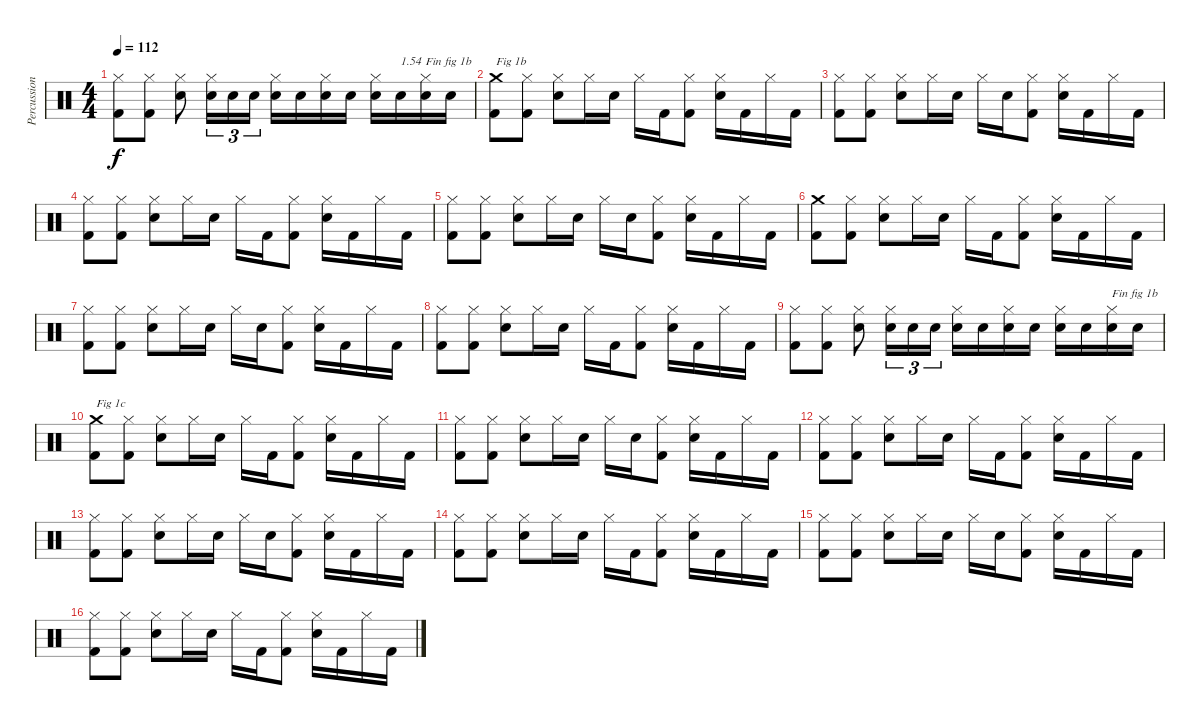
\track ("Percussions" "Percussion") {instrument percussion}
\staff {score}
\articulation defaults
\ts (4 4)
\tempo 112
\clef neutral
\ks c
("Kick (hit) 2" "Hi-Hat (closed)").8{dy f} ("Kick (hit) 2" "Hi-Hat (closed)").8 ("Snare (hit) 2" "Hi-Hat (closed)").8 ("Snare (hit) 2" "Hi-Hat (closed)").16{tu (3 2)} "Snare (hit) 2".16{tu (3 2)} "Snare (hit) 2".16{tu (3 2)} ("Snare (hit) 2" "Hi-Hat (closed)").16 "Snare (hit) 2".16 ("Snare (hit) 2" "Hi-Hat (closed)").16 "Snare (hit) 2".16 ("Snare (hit) 2" "Hi-Hat (closed)").16 "Snare (hit) 2".16{txt "1.54"} ("Snare (hit) 2" "Hi-Hat (closed)").16{txt "Fin fig 1b"} "Snare (hit) 2".16 |
("Kick (hit) 2" "Crash medium (hit)").8{txt "Fig 1b"} ("Kick (hit) 2" "Hi-Hat (closed)").8 ("Snare (hit) 2" "Hi-Hat (closed)").8 "Hi-Hat (closed)".16 "Snare (hit) 2".16 "Hi-Hat (closed)".16 "Kick (hit) 2".16 ("Kick (hit) 2" "Hi-Hat (closed)").8 ("Snare (hit) 2" "Hi-Hat (closed)").16 "Kick (hit) 2".16 "Hi-Hat (closed)".16 "Kick (hit) 2".16 |
("Kick (hit) 2" "Hi-Hat (closed)").8 ("Kick (hit) 2" "Hi-Hat (closed)").8 ("Snare (hit) 2" "Hi-Hat (closed)").8 "Hi-Hat (closed)".16 "Snare (hit) 2".16 "Hi-Hat (closed)".16 "Snare (hit) 2".16 ("Kick (hit) 2" "Hi-Hat (closed)").8 ("Snare (hit) 2" "Hi-Hat (closed)").16 "Kick (hit) 2".16 "Hi-Hat (closed)".16 "Kick (hit) 2".16 |
("Kick (hit) 2" "Hi-Hat (closed)").8 ("Kick (hit) 2" "Hi-Hat (closed)").8 ("Snare (hit) 2" "Hi-Hat (closed)").8 "Hi-Hat (closed)".16 "Snare (hit) 2".16 "Hi-Hat (closed)".16 "Kick (hit) 2".16 ("Kick (hit) 2" "Hi-Hat (closed)").8 ("Snare (hit) 2" "Hi-Hat (closed)").16 "Kick (hit) 2".16 "Hi-Hat (closed)".16 "Kick (hit) 2".16 |
("Kick (hit) 2" "Hi-Hat (closed)").8 ("Kick (hit) 2" "Hi-Hat (closed)").8 ("Snare (hit) 2" "Hi-Hat (closed)").8 "Hi-Hat (closed)".16 "Snare (hit) 2".16 "Hi-Hat (closed)".16 "Snare (hit) 2".16 ("Kick (hit) 2" "Hi-Hat (closed)").8 ("Snare (hit) 2" "Hi-Hat (closed)").16 "Kick (hit) 2".16 "Hi-Hat (closed)".16 "Kick (hit) 2".16 |
("Kick (hit) 2" "Crash medium (hit)").8 ("Kick (hit) 2" "Hi-Hat (closed)").8 ("Snare (hit) 2" "Hi-Hat (closed)").8 "Hi-Hat (closed)".16 "Snare (hit) 2".16 "Hi-Hat (closed)".16 "Kick (hit) 2".16 ("Kick (hit) 2" "Hi-Hat (closed)").8 ("Snare (hit) 2" "Hi-Hat (closed)").16 "Kick (hit) 2".16 "Hi-Hat (closed)".16 "Kick (hit) 2".16 |
("Kick (hit) 2" "Hi-Hat (closed)").8 ("Kick (hit) 2" "Hi-Hat (closed)").8 ("Snare (hit) 2" "Hi-Hat (closed)").8 "Hi-Hat (closed)".16 "Snare (hit) 2".16 "Hi-Hat (closed)".16 "Snare (hit) 2".16 ("Kick (hit) 2" "Hi-Hat (closed)").8 ("Snare (hit) 2" "Hi-Hat (closed)").16 "Kick (hit) 2".16 "Hi-Hat (closed)".16 "Kick (hit) 2".16 |
("Kick (hit) 2" "Hi-Hat (closed)").8 ("Kick (hit) 2" "Hi-Hat (closed)").8 ("Snare (hit) 2" "Hi-Hat (closed)").8 "Hi-Hat (closed)".16 "Snare (hit) 2".16 "Hi-Hat (closed)".16 "Kick (hit) 2".16 ("Kick (hit) 2" "Hi-Hat (closed)").8 ("Snare (hit) 2" "Hi-Hat (closed)").16 "Kick (hit) 2".16 "Hi-Hat (closed)".16 "Kick (hit) 2".16 |
("Kick (hit) 2" "Hi-Hat (closed)").8 ("Kick (hit) 2" "Hi-Hat (closed)").8 ("Snare (hit) 2" "Hi-Hat (closed)").8 ("Snare (hit) 2" "Hi-Hat (closed)").16{tu (3 2)} "Snare (hit) 2".16{tu (3 2)} "Snare (hit) 2".16{tu (3 2)} ("Snare (hit) 2" "Hi-Hat (closed)").16 "Snare (hit) 2".16 ("Snare (hit) 2" "Hi-Hat (closed)").16 "Snare (hit) 2".16 ("Snare (hit) 2" "Hi-Hat (closed)").16 "Snare (hit) 2".16 ("Snare (hit) 2" "Hi-Hat (closed)").16{txt "Fin fig 1b"} "Snare (hit) 2".16 |
("Kick (hit) 2" "Crash medium (hit)").8{txt "Fig 1c"} ("Kick (hit) 2" "Hi-Hat (closed)").8 ("Snare (hit) 2" "Hi-Hat (closed)").8 "Hi-Hat (closed)".16 "Snare (hit) 2".16 "Hi-Hat (closed)".16 "Kick (hit) 2".16 ("Kick (hit) 2" "Hi-Hat (closed)").8 ("Snare (hit) 2" "Hi-Hat (closed)").16 "Kick (hit) 2".16 "Hi-Hat (closed)".16 "Kick (hit) 2".16 |
("Kick (hit) 2" "Hi-Hat (closed)").8 ("Kick (hit) 2" "Hi-Hat (closed)").8 ("Snare (hit) 2" "Hi-Hat (closed)").8 "Hi-Hat (closed)".16 "Snare (hit) 2".16 "Hi-Hat (closed)".16 "Snare (hit) 2".16 ("Kick (hit) 2" "Hi-Hat (closed)").8 ("Snare (hit) 2" "Hi-Hat (closed)").16 "Kick (hit) 2".16 "Hi-Hat (closed)".16 "Kick (hit) 2".16 |
("Kick (hit) 2" "Hi-Hat (closed)").8 ("Kick (hit) 2" "Hi-Hat (closed)").8 ("Snare (hit) 2" "Hi-Hat (closed)").8 "Hi-Hat (closed)".16 "Snare (hit) 2".16 "Hi-Hat (closed)".16 "Kick (hit) 2".16 ("Kick (hit) 2" "Hi-Hat (closed)").8 ("Snare (hit) 2" "Hi-Hat (closed)").16 "Kick (hit) 2".16 "Hi-Hat (closed)".16 "Kick (hit) 2".16 |
("Kick (hit) 2" "Hi-Hat (closed)").8 ("Kick (hit) 2" "Hi-Hat (closed)").8 ("Snare (hit) 2" "Hi-Hat (closed)").8 "Hi-Hat (closed)".16 "Snare (hit) 2".16 "Hi-Hat (closed)".16 "Snare (hit) 2".16 ("Kick (hit) 2" "Hi-Hat (closed)").8 ("Snare (hit) 2" "Hi-Hat (closed)").16 "Kick (hit) 2".16 "Hi-Hat (closed)".16 "Kick (hit) 2".16 |
("Kick (hit) 2" "Hi-Hat (closed)").8 ("Kick (hit) 2" "Hi-Hat (closed)").8 ("Snare (hit) 2" "Hi-Hat (closed)").8 "Hi-Hat (closed)".16 "Snare (hit) 2".16 "Hi-Hat (closed)".16 "Kick (hit) 2".16 ("Kick (hit) 2" "Hi-Hat (closed)").8 ("Snare (hit) 2" "Hi-Hat (closed)").16 "Kick (hit) 2".16 "Hi-Hat (closed)".16 "Kick (hit) 2".16 |
("Kick (hit) 2" "Hi-Hat (closed)").8 ("Kick (hit) 2" "Hi-Hat (closed)").8 ("Snare (hit) 2" "Hi-Hat (closed)").8 "Hi-Hat (closed)".16 "Snare (hit) 2".16 "Hi-Hat (closed)".16 "Snare (hit) 2".16 ("Kick (hit) 2" "Hi-Hat (closed)").8 ("Snare (hit) 2" "Hi-Hat (closed)").16 "Kick (hit) 2".16 "Hi-Hat (closed)".16 "Kick (hit) 2".16 |
("Kick (hit) 2" "Hi-Hat (closed)").8 ("Kick (hit) 2" "Hi-Hat (closed)").8 ("Snare (hit) 2" "Hi-Hat (closed)").8 "Hi-Hat (closed)".16 "Snare (hit) 2".16 "Hi-Hat (closed)".16 "Kick (hit) 2".16 ("Kick (hit) 2" "Hi-Hat (closed)").8 ("Snare (hit) 2" "Hi-Hat (closed)").16 "Kick (hit) 2".16 "Hi-Hat (closed)".16 "Kick (hit) 2".16
